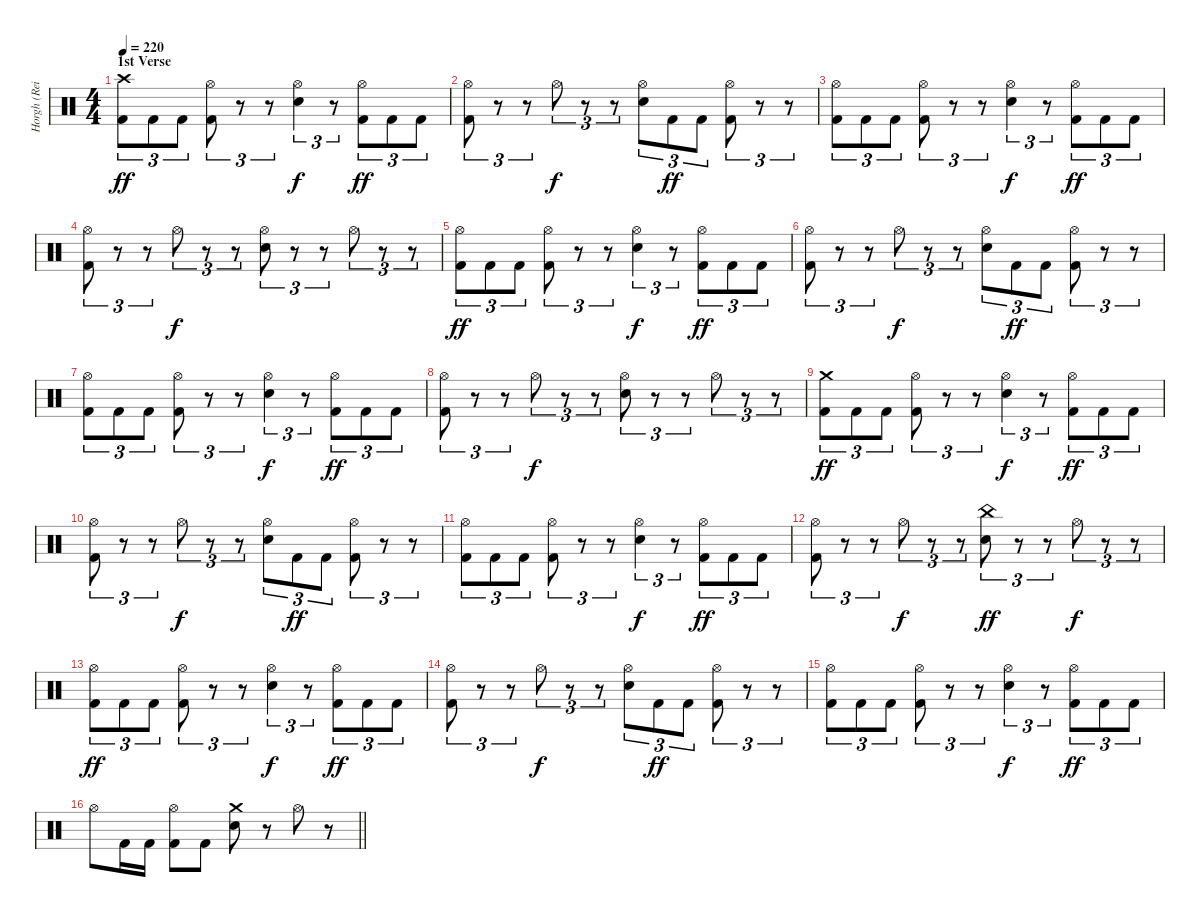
\track ("Horgh (Reidar Horghagen)" "Horgh (Rei") {instrument percussion}
\staff {score}
\articulation defaults
\ts (4 4)
\section ("" "1st Verse")
\tempo 220
\clef neutral
\ks c
("Crash high (hit)" "Kick (hit) 2").8{tu (3 2) dy ff} "Kick (hit) 2".8{tu (3 2)} "Kick (hit) 2".8{tu (3 2)} ("Hi-Hat (open)" "Kick (hit) 2").8{tu (3 2)} r.8{tu (3 2)} r.8{tu (3 2)} ("Hi-Hat (open)" "Snare (hit) 2").4{tu (3 2) dy f} r.8{tu (3 2)} ("Hi-Hat (open)" "Kick (hit) 2").8{tu (3 2) dy ff} "Kick (hit) 2".8{tu (3 2)} "Kick (hit) 2".8{tu (3 2)} |
("Hi-Hat (open)" "Kick (hit) 2").8{tu (3 2)} r.8{tu (3 2)} r.8{tu (3 2)} "Hi-Hat (open)".8{tu (3 2) dy f} r.8{tu (3 2)} r.8{tu (3 2)} ("Hi-Hat (open)" "Snare (hit) 2").8{tu (3 2)} "Kick (hit) 2".8{tu (3 2) dy ff} "Kick (hit) 2".8{tu (3 2)} ("Hi-Hat (open)" "Kick (hit) 2").8{tu (3 2)} r.8{tu (3 2)} r.8{tu (3 2)} |
("Hi-Hat (open)" "Kick (hit) 2").8{tu (3 2)} "Kick (hit) 2".8{tu (3 2)} "Kick (hit) 2".8{tu (3 2)} ("Hi-Hat (open)" "Kick (hit) 2").8{tu (3 2)} r.8{tu (3 2)} r.8{tu (3 2)} ("Hi-Hat (open)" "Snare (hit) 2").4{tu (3 2) dy f} r.8{tu (3 2)} ("Hi-Hat (open)" "Kick (hit) 2").8{tu (3 2) dy ff} "Kick (hit) 2".8{tu (3 2)} "Kick (hit) 2".8{tu (3 2)} |
("Hi-Hat (open)" "Kick (hit) 2").8{tu (3 2)} r.8{tu (3 2)} r.8{tu (3 2)} "Hi-Hat (open)".8{tu (3 2) dy f} r.8{tu (3 2)} r.8{tu (3 2)} ("Hi-Hat (open)" "Snare (hit) 2").8{tu (3 2)} r.8{tu (3 2)} r.8{tu (3 2)} "Hi-Hat (open)".8{tu (3 2)} r.8{tu (3 2)} r.8{tu (3 2)} |
("Hi-Hat (open)" "Kick (hit) 2").8{tu (3 2) dy ff} "Kick (hit) 2".8{tu (3 2)} "Kick (hit) 2".8{tu (3 2)} ("Hi-Hat (open)" "Kick (hit) 2").8{tu (3 2)} r.8{tu (3 2)} r.8{tu (3 2)} ("Hi-Hat (open)" "Snare (hit) 2").4{tu (3 2) dy f} r.8{tu (3 2)} ("Hi-Hat (open)" "Kick (hit) 2").8{tu (3 2) dy ff} "Kick (hit) 2".8{tu (3 2)} "Kick (hit) 2".8{tu (3 2)} |
("Hi-Hat (open)" "Kick (hit) 2").8{tu (3 2)} r.8{tu (3 2)} r.8{tu (3 2)} "Hi-Hat (open)".8{tu (3 2) dy f} r.8{tu (3 2)} r.8{tu (3 2)} ("Hi-Hat (open)" "Snare (hit) 2").8{tu (3 2)} "Kick (hit) 2".8{tu (3 2) dy ff} "Kick (hit) 2".8{tu (3 2)} ("Hi-Hat (open)" "Kick (hit) 2").8{tu (3 2)} r.8{tu (3 2)} r.8{tu (3 2)} |
("Hi-Hat (open)" "Kick (hit) 2").8{tu (3 2)} "Kick (hit) 2".8{tu (3 2)} "Kick (hit) 2".8{tu (3 2)} ("Hi-Hat (open)" "Kick (hit) 2").8{tu (3 2)} r.8{tu (3 2)} r.8{tu (3 2)} ("Hi-Hat (open)" "Snare (hit) 2").4{tu (3 2) dy f} r.8{tu (3 2)} ("Hi-Hat (open)" "Kick (hit) 2").8{tu (3 2) dy ff} "Kick (hit) 2".8{tu (3 2)} "Kick (hit) 2".8{tu (3 2)} |
("Hi-Hat (open)" "Kick (hit) 2").8{tu (3 2)} r.8{tu (3 2)} r.8{tu (3 2)} "Hi-Hat (open)".8{tu (3 2) dy f} r.8{tu (3 2)} r.8{tu (3 2)} ("Hi-Hat (open)" "Snare (hit) 2").8{tu (3 2)} r.8{tu (3 2)} r.8{tu (3 2)} "Hi-Hat (open)".8{tu (3 2)} r.8{tu (3 2)} r.8{tu (3 2)} |
("Crash medium (hit)" "Kick (hit) 2").8{tu (3 2) dy ff} "Kick (hit) 2".8{tu (3 2)} "Kick (hit) 2".8{tu (3 2)} ("Hi-Hat (open)" "Kick (hit) 2").8{tu (3 2)} r.8{tu (3 2)} r.8{tu (3 2)} ("Hi-Hat (open)" "Snare (hit) 2").4{tu (3 2) dy f} r.8{tu (3 2)} ("Hi-Hat (open)" "Kick (hit) 2").8{tu (3 2) dy ff} "Kick (hit) 2".8{tu (3 2)} "Kick (hit) 2".8{tu (3 2)} |
("Hi-Hat (open)" "Kick (hit) 2").8{tu (3 2)} r.8{tu (3 2)} r.8{tu (3 2)} "Hi-Hat (open)".8{tu (3 2) dy f} r.8{tu (3 2)} r.8{tu (3 2)} ("Hi-Hat (open)" "Snare (hit) 2").8{tu (3 2)} "Kick (hit) 2".8{tu (3 2) dy ff} "Kick (hit) 2".8{tu (3 2)} ("Hi-Hat (open)" "Kick (hit) 2").8{tu (3 2)} r.8{tu (3 2)} r.8{tu (3 2)} |
("Hi-Hat (open)" "Kick (hit) 2").8{tu (3 2)} "Kick (hit) 2".8{tu (3 2)} "Kick (hit) 2".8{tu (3 2)} ("Hi-Hat (open)" "Kick (hit) 2").8{tu (3 2)} r.8{tu (3 2)} r.8{tu (3 2)} ("Hi-Hat (open)" "Snare (hit) 2").4{tu (3 2) dy f} r.8{tu (3 2)} ("Hi-Hat (open)" "Kick (hit) 2").8{tu (3 2) dy ff} "Kick (hit) 2".8{tu (3 2)} "Kick (hit) 2".8{tu (3 2)} |
("Hi-Hat (open)" "Kick (hit) 2").8{tu (3 2)} r.8{tu (3 2)} r.8{tu (3 2)} "Hi-Hat (open)".8{tu (3 2) dy f} r.8{tu (3 2)} r.8{tu (3 2)} ("China (hit)" "Snare (hit) 2").8{tu (3 2) dy ff} r.8{tu (3 2)} r.8{tu (3 2)} "Hi-Hat (open)".8{tu (3 2) dy f} r.8{tu (3 2)} r.8{tu (3 2)} |
("Hi-Hat (open)" "Kick (hit) 2").8{tu (3 2) dy ff} "Kick (hit) 2".8{tu (3 2)} "Kick (hit) 2".8{tu (3 2)} ("Hi-Hat (open)" "Kick (hit) 2").8{tu (3 2)} r.8{tu (3 2)} r.8{tu (3 2)} ("Hi-Hat (open)" "Snare (hit) 2").4{tu (3 2) dy f} r.8{tu (3 2)} ("Hi-Hat (open)" "Kick (hit) 2").8{tu (3 2) dy ff} "Kick (hit) 2".8{tu (3 2)} "Kick (hit) 2".8{tu (3 2)} |
("Hi-Hat (open)" "Kick (hit) 2").8{tu (3 2)} r.8{tu (3 2)} r.8{tu (3 2)} "Hi-Hat (open)".8{tu (3 2) dy f} r.8{tu (3 2)} r.8{tu (3 2)} ("Hi-Hat (open)" "Snare (hit) 2").8{tu (3 2)} "Kick (hit) 2".8{tu (3 2) dy ff} "Kick (hit) 2".8{tu (3 2)} ("Hi-Hat (open)" "Kick (hit) 2").8{tu (3 2)} r.8{tu (3 2)} r.8{tu (3 2)} |
("Hi-Hat (open)" "Kick (hit) 2").8{tu (3 2)} "Kick (hit) 2".8{tu (3 2)} "Kick (hit) 2".8{tu (3 2)} ("Hi-Hat (open)" "Kick (hit) 2").8{tu (3 2)} r.8{tu (3 2)} r.8{tu (3 2)} ("Hi-Hat (open)" "Snare (hit) 2").4{tu (3 2) dy f} r.8{tu (3 2)} ("Hi-Hat (open)" "Kick (hit) 2").8{tu (3 2) dy ff} "Kick (hit) 2".8{tu (3 2)} "Kick (hit) 2".8{tu (3 2)} |
\barLineRight lightlight "Hi-Hat (open)".8 "Kick (hit) 2".16 "Kick (hit) 2".16
("Hi-Hat (open)" "Kick (hit) 2").8 "Kick (hit) 2".8 ("Crash medium (hit)" "Snare (hit) 2").8 r.8 "Hi-Hat (open)".8 r.8
